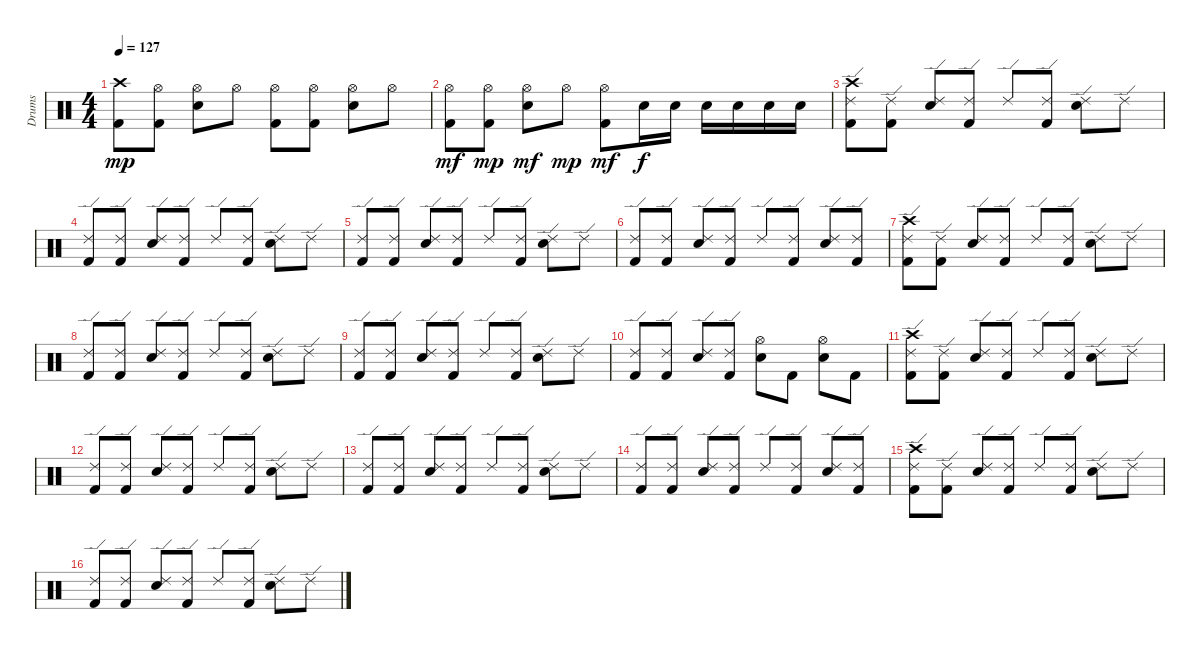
\track ("Drums" "Drums") {instrument percussion}
\staff {score}
\articulation defaults
\ts (4 4)
\tempo 127
\clef neutral
\ks c
("Crash high (hit)" "Kick (hit) 2").8{dy mp} ("Hi-Hat (open)" "Kick (hit) 2").8 ("Hi-Hat (open)" "Electric Snare (hit)").8 "Hi-Hat (open)".8 ("Hi-Hat (open)" "Kick (hit) 2").8 ("Hi-Hat (open)" "Kick (hit) 2").8 ("Hi-Hat (open)" "Electric Snare (hit)").8 "Hi-Hat (open)".8 |
("Hi-Hat (open)" "Kick (hit) 2").8{dy mf} ("Hi-Hat (open)" "Kick (hit) 2").8{dy mp} ("Hi-Hat (open)" "Electric Snare (hit)").8{dy mf} "Hi-Hat (open)".8{dy mp} ("Hi-Hat (open)" "Kick (hit) 2").8{dy mf} "Electric Snare (hit)".16{dy f} "Electric Snare (hit)".16 "Electric Snare (hit)".16 "Electric Snare (hit)".16 "Electric Snare (hit)".16 "Electric Snare (hit)".16 |
("Crash high (hit)" "Ride (edge) 2" "Kick (hit) 2").8 ("Ride (edge) 2" "Kick (hit) 2").8 ("Ride (edge) 2" "Electric Snare (hit)").8 ("Ride (edge) 2" "Kick (hit) 2").8 "Ride (edge) 2".8 ("Ride (edge) 2" "Kick (hit) 2").8 ("Ride (edge) 2" "Electric Snare (hit)").8 "Ride (edge) 2".8 |
("Ride (edge) 2" "Kick (hit) 2").8 ("Ride (edge) 2" "Kick (hit) 2").8 ("Ride (edge) 2" "Electric Snare (hit)").8 ("Ride (edge) 2" "Kick (hit) 2").8 "Ride (edge) 2".8 ("Ride (edge) 2" "Kick (hit) 2").8 ("Ride (edge) 2" "Electric Snare (hit)").8 "Ride (edge) 2".8 |
("Ride (edge) 2" "Kick (hit) 2").8 ("Ride (edge) 2" "Kick (hit) 2").8 ("Ride (edge) 2" "Electric Snare (hit)").8 ("Ride (edge) 2" "Kick (hit) 2").8 "Ride (edge) 2".8 ("Ride (edge) 2" "Kick (hit) 2").8 ("Ride (edge) 2" "Electric Snare (hit)").8 "Ride (edge) 2".8 |
("Ride (edge) 2" "Kick (hit) 2").8 ("Ride (edge) 2" "Kick (hit) 2").8 ("Ride (edge) 2" "Electric Snare (hit)").8 ("Ride (edge) 2" "Kick (hit) 2").8 "Ride (edge) 2".8 ("Ride (edge) 2" "Kick (hit) 2").8 ("Ride (edge) 2" "Electric Snare (hit)").8 ("Ride (edge) 2" "Kick (hit) 2").8 |
("Crash high (hit)" "Ride (edge) 2" "Kick (hit) 2").8 ("Ride (edge) 2" "Kick (hit) 2").8 ("Ride (edge) 2" "Electric Snare (hit)").8 ("Ride (edge) 2" "Kick (hit) 2").8 "Ride (edge) 2".8 ("Ride (edge) 2" "Kick (hit) 2").8 ("Ride (edge) 2" "Electric Snare (hit)").8 "Ride (edge) 2".8 |
("Ride (edge) 2" "Kick (hit) 2").8 ("Ride (edge) 2" "Kick (hit) 2").8 ("Ride (edge) 2" "Electric Snare (hit)").8 ("Ride (edge) 2" "Kick (hit) 2").8 "Ride (edge) 2".8 ("Ride (edge) 2" "Kick (hit) 2").8 ("Ride (edge) 2" "Electric Snare (hit)").8 "Ride (edge) 2".8 |
("Ride (edge) 2" "Kick (hit) 2").8 ("Ride (edge) 2" "Kick (hit) 2").8 ("Ride (edge) 2" "Electric Snare (hit)").8 ("Ride (edge) 2" "Kick (hit) 2").8 "Ride (edge) 2".8 ("Ride (edge) 2" "Kick (hit) 2").8 ("Ride (edge) 2" "Electric Snare (hit)").8 "Ride (edge) 2".8 |
("Ride (edge) 2" "Kick (hit) 2").8 ("Ride (edge) 2" "Kick (hit) 2").8 ("Ride (edge) 2" "Electric Snare (hit)").8 ("Ride (edge) 2" "Kick (hit) 2").8 ("Hi-Hat (open)" "Electric Snare (hit)").8 "Kick (hit) 2".8 ("Hi-Hat (open)" "Electric Snare (hit)").8 "Kick (hit) 2".8 |
("Crash high (hit)" "Ride (edge) 2" "Kick (hit) 2").8 ("Ride (edge) 2" "Kick (hit) 2").8 ("Ride (edge) 2" "Electric Snare (hit)").8 ("Ride (edge) 2" "Kick (hit) 2").8 "Ride (edge) 2".8 ("Ride (edge) 2" "Kick (hit) 2").8 ("Ride (edge) 2" "Electric Snare (hit)").8 "Ride (edge) 2".8 |
("Ride (edge) 2" "Kick (hit) 2").8 ("Ride (edge) 2" "Kick (hit) 2").8 ("Ride (edge) 2" "Electric Snare (hit)").8 ("Ride (edge) 2" "Kick (hit) 2").8 "Ride (edge) 2".8 ("Ride (edge) 2" "Kick (hit) 2").8 ("Ride (edge) 2" "Electric Snare (hit)").8 "Ride (edge) 2".8 |
("Ride (edge) 2" "Kick (hit) 2").8 ("Ride (edge) 2" "Kick (hit) 2").8 ("Ride (edge) 2" "Electric Snare (hit)").8 ("Ride (edge) 2" "Kick (hit) 2").8 "Ride (edge) 2".8 ("Ride (edge) 2" "Kick (hit) 2").8 ("Ride (edge) 2" "Electric Snare (hit)").8 "Ride (edge) 2".8 |
("Ride (edge) 2" "Kick (hit) 2").8 ("Ride (edge) 2" "Kick (hit) 2").8 ("Ride (edge) 2" "Electric Snare (hit)").8 ("Ride (edge) 2" "Kick (hit) 2").8 "Ride (edge) 2".8 ("Ride (edge) 2" "Kick (hit) 2").8 ("Ride (edge) 2" "Electric Snare (hit)").8 ("Ride (edge) 2" "Kick (hit) 2").8 |
("Crash high (hit)" "Ride (edge) 2" "Kick (hit) 2").8 ("Ride (edge) 2" "Kick (hit) 2").8 ("Ride (edge) 2" "Electric Snare (hit)").8 ("Ride (edge) 2" "Kick (hit) 2").8 "Ride (edge) 2".8 ("Ride (edge) 2" "Kick (hit) 2").8 ("Ride (edge) 2" "Electric Snare (hit)").8 "Ride (edge) 2".8 |
("Ride (edge) 2" "Kick (hit) 2").8 ("Ride (edge) 2" "Kick (hit) 2").8 ("Ride (edge) 2" "Electric Snare (hit)").8 ("Ride (edge) 2" "Kick (hit) 2").8 "Ride (edge) 2".8 ("Ride (edge) 2" "Kick (hit) 2").8 ("Ride (edge) 2" "Electric Snare (hit)").8 "Ride (edge) 2".8
